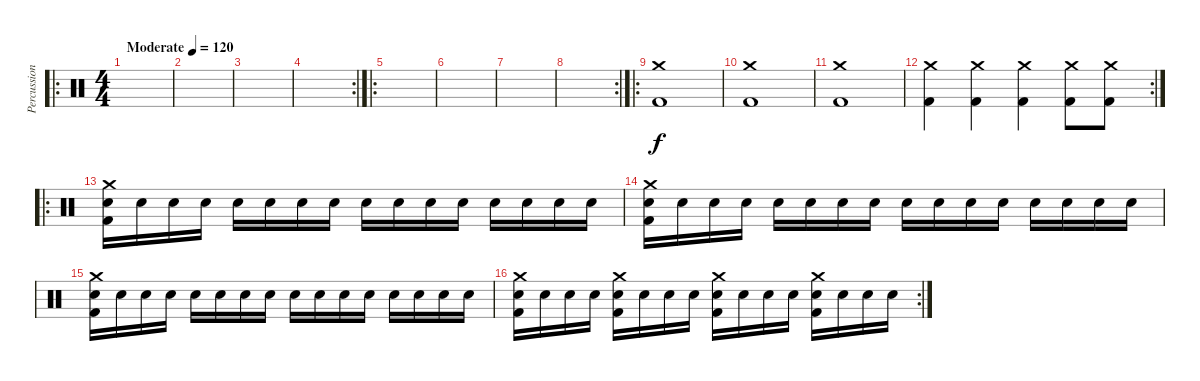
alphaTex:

\track ("Percussion" "Percussion") {instrument percussion}
\staff {score}
\articulation defaults
\ro
\ts (4 4)
\tempo (120 "Moderate")
\clef neutral
\ks c
|
|
|
\rc 2
|
\ro
|
|
|
\rc 2
|
\ro
("Crash medium (hit)" "Kick (hit) 2").1 |
("Crash medium (hit)" "Kick (hit) 2").1 |
("Crash medium (hit)" "Kick (hit) 2").1 |
\rc 2
("Crash medium (hit)" "Kick (hit) 2").4 ("Crash medium (hit)" "Kick (hit) 2").4 ("Crash medium (hit)" "Kick (hit) 2").4 ("Crash medium (hit)" "Kick (hit) 2").8 ("Crash medium (hit)" "Kick (hit) 2").8 |
\ro
("Crash medium (hit)" "Kick (hit) 2" "Snare (hit) 2").16 "Snare (hit) 2".16 "Snare (hit) 2".16 "Snare (hit) 2".16 "Snare (hit) 2".16 "Snare (hit) 2".16 "Snare (hit) 2".16 "Snare (hit) 2".16 "Snare (hit) 2".16 "Snare (hit) 2".16 "Snare (hit) 2".16 "Snare (hit) 2".16 "Snare (hit) 2".16 "Snare (hit) 2".16 "Snare (hit) 2".16 "Snare (hit) 2".16 |
("Crash medium (hit)" "Kick (hit) 2" "Snare (hit) 2").16 "Snare (hit) 2".16 "Snare (hit) 2".16 "Snare (hit) 2".16 "Snare (hit) 2".16 "Snare (hit) 2".16 "Snare (hit) 2".16 "Snare (hit) 2".16 "Snare (hit) 2".16 "Snare (hit) 2".16 "Snare (hit) 2".16 "Snare (hit) 2".16 "Snare (hit) 2".16 "Snare (hit) 2".16 "Snare (hit) 2".16 "Snare (hit) 2".16 |
("Crash medium (hit)" "Kick (hit) 2" "Snare (hit) 2").16 "Snare (hit) 2".16 "Snare (hit) 2".16 "Snare (hit) 2".16 "Snare (hit) 2".16 "Snare (hit) 2".16 "Snare (hit) 2".16 "Snare (hit) 2".16 "Snare (hit) 2".16 "Snare (hit) 2".16 "Snare (hit) 2".16 "Snare (hit) 2".16 "Snare (hit) 2".16 "Snare (hit) 2".16 "Snare (hit) 2".16 "Snare (hit) 2".16 |
\rc 2
("Crash medium (hit)" "Kick (hit) 2" "Snare (hit) 2").16 "Snare (hit) 2".16 "Snare (hit) 2".16 "Snare (hit) 2".16 ("Crash medium (hit)" "Kick (hit) 2" "Snare (hit) 2").16 "Snare (hit) 2".16 "Snare (hit) 2".16 "Snare (hit) 2".16 ("Crash medium (hit)" "Kick (hit) 2" "Snare (hit) 2").16 "Snare (hit) 2".16 "Snare (hit) 2".16 "Snare (hit) 2".16 ("Crash medium (hit)" "Kick (hit) 2" "Snare (hit) 2").16 "Snare (hit) 2".16 "Snare (hit) 2".16 "Snare (hit) 2".16
